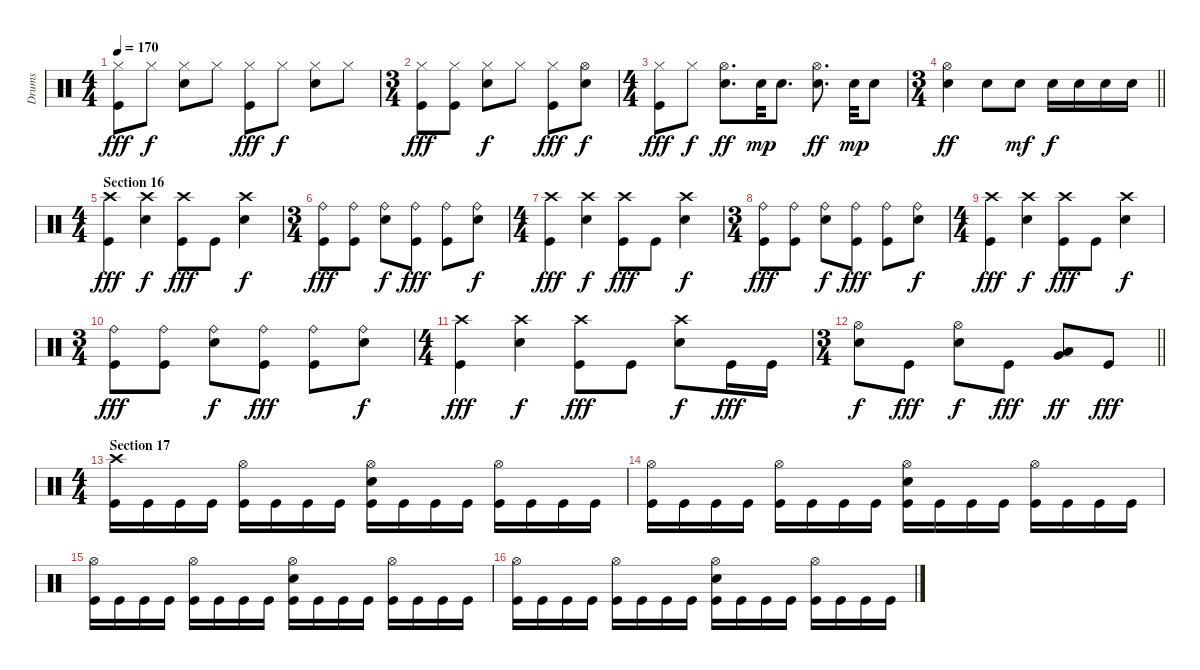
\track ("Drums" "Drums") {instrument percussion}
\staff {score}
\articulation defaults
\ts (4 4)
\tempo 170
\clef neutral
\ks c
("Hi-Hat (closed)" "Kick (hit)").8{dy fff} "Hi-Hat (closed)".8{dy f} ("Hi-Hat (closed)" "Snare (hit) 2").8 "Hi-Hat (closed)".8 ("Hi-Hat (closed)" "Kick (hit)").8{dy fff} "Hi-Hat (closed)".8{dy f} ("Hi-Hat (closed)" "Snare (hit) 2").8 "Hi-Hat (closed)".8 |
\ts (3 4)
("Hi-Hat (closed)" "Kick (hit)").8{dy fff} ("Hi-Hat (closed)" "Kick (hit)").8 ("Hi-Hat (closed)" "Snare (hit) 2").8{dy f} "Hi-Hat (closed)".8 ("Hi-Hat (closed)" "Kick (hit)").8{dy fff} ("Hi-Hat (open)" "Snare (hit) 2").8{dy f} |
\ts (4 4)
("Hi-Hat (closed)" "Kick (hit)").8{dy fff} "Hi-Hat (closed)".8{dy f} ("Hi-Hat (open)" "Snare (hit) 2").8{d dy ff} "Snare (hit) 2".32{dy mp} "Snare (hit) 2".8{d} ("Hi-Hat (open)" "Snare (hit) 2").8{d dy ff} "Snare (hit) 2".32{dy mp} "Snare (hit) 2".8 |
\ts (3 4)
\barLineRight lightlight
("Hi-Hat (open)" "Snare (hit) 2").4{dy ff} "Snare (hit) 2".8 "Snare (hit) 2".8{dy mf} "Snare (hit) 2".16{dy f} "Snare (hit) 2".16 "Snare (hit) 2".16 "Snare (hit) 2".16 |
\ts (4 4)
\section ("" "Section 16")
("Crash high (hit)" "Kick (hit)").4{dy fff} ("Crash high (hit)" "Snare (hit) 2").4{dy f} ("Crash high (hit)" "Kick (hit)").8{dy fff} "Kick (hit)".8 ("Crash high (hit)" "Snare (hit) 2").4{dy f} |
\ts (3 4)
("Ride (bell)" "Kick (hit)").8{dy fff} ("Ride (bell)" "Kick (hit)").8 ("Ride (bell)" "Snare (hit) 2").8{dy f} ("Ride (bell)" "Kick (hit)").8{dy fff} ("Ride (bell)" "Kick (hit)").8 ("Ride (bell)" "Snare (hit) 2").8{dy f} |
\ts (4 4)
("Crash high (hit)" "Kick (hit)").4{dy fff} ("Crash high (hit)" "Snare (hit) 2").4{dy f} ("Crash high (hit)" "Kick (hit)").8{dy fff} "Kick (hit)".8 ("Crash high (hit)" "Snare (hit) 2").4{dy f} |
\ts (3 4)
("Ride (bell)" "Kick (hit)").8{dy fff} ("Ride (bell)" "Kick (hit)").8 ("Ride (bell)" "Snare (hit) 2").8{dy f} ("Ride (bell)" "Kick (hit)").8{dy fff} ("Ride (bell)" "Kick (hit)").8 ("Ride (bell)" "Snare (hit) 2").8{dy f} |
\ts (4 4)
("Crash high (hit)" "Kick (hit)").4{dy fff} ("Crash high (hit)" "Snare (hit) 2").4{dy f} ("Crash high (hit)" "Kick (hit)").8{dy fff} "Kick (hit)".8 ("Crash high (hit)" "Snare (hit) 2").4{dy f} |
\ts (3 4)
("Ride (bell)" "Kick (hit)").8{dy fff} ("Ride (bell)" "Kick (hit)").8 ("Ride (bell)" "Snare (hit) 2").8{dy f} ("Ride (bell)" "Kick (hit)").8{dy fff} ("Ride (bell)" "Kick (hit)").8 ("Ride (bell)" "Snare (hit) 2").8{dy f} |
\ts (4 4)
("Crash high (hit)" "Kick (hit)").4{dy fff} ("Crash high (hit)" "Snare (hit) 2").4{dy f} ("Crash high (hit)" "Kick (hit)").8{dy fff} "Kick (hit)".8 ("Crash high (hit)" "Snare (hit) 2").8{dy f} "Kick (hit)".16{dy fff} "Kick (hit)".16 |
\ts (3 4)
\barLineRight lightlight
("Hi-Hat (open)" "Snare (hit) 2").8{dy f} "Kick (hit)".8{dy fff} ("Hi-Hat (open)" "Snare (hit) 2").8{dy f} "Kick (hit)".8{dy fff} ("Low Tom (hit)" "Very Low Tom (hit)").8{bd 120 dy ff} "Kick (hit)".8{dy fff} |
\ts (4 4)
\section ("" "Section 17")
("Crash high (hit)" "Kick (hit)").16 "Kick (hit)".16 "Kick (hit)".16 "Kick (hit)".16 ("Hi-Hat (open)" "Kick (hit)").16 "Kick (hit)".16 "Kick (hit)".16 "Kick (hit)".16 ("Hi-Hat (open)" "Snare (hit) 2" "Kick (hit)").16 "Kick (hit)".16 "Kick (hit)".16 "Kick (hit)".16 ("Hi-Hat (open)" "Kick (hit)").16 "Kick (hit)".16 "Kick (hit)".16 "Kick (hit)".16 |
("Hi-Hat (open)" "Kick (hit)").16 "Kick (hit)".16 "Kick (hit)".16 "Kick (hit)".16 ("Hi-Hat (open)" "Kick (hit)").16 "Kick (hit)".16 "Kick (hit)".16 "Kick (hit)".16 ("Hi-Hat (open)" "Snare (hit) 2" "Kick (hit)").16 "Kick (hit)".16 "Kick (hit)".16 "Kick (hit)".16 ("Hi-Hat (open)" "Kick (hit)").16 "Kick (hit)".16 "Kick (hit)".16 "Kick (hit)".16 |
("Hi-Hat (open)" "Kick (hit)").16 "Kick (hit)".16 "Kick (hit)".16 "Kick (hit)".16 ("Hi-Hat (open)" "Kick (hit)").16 "Kick (hit)".16 "Kick (hit)".16 "Kick (hit)".16 ("Hi-Hat (open)" "Snare (hit) 2" "Kick (hit)").16 "Kick (hit)".16 "Kick (hit)".16 "Kick (hit)".16 ("Hi-Hat (open)" "Kick (hit)").16 "Kick (hit)".16 "Kick (hit)".16 "Kick (hit)".16 |
("Hi-Hat (open)" "Kick (hit)").16 "Kick (hit)".16 "Kick (hit)".16 "Kick (hit)".16 ("Hi-Hat (open)" "Kick (hit)").16 "Kick (hit)".16 "Kick (hit)".16 "Kick (hit)".16 ("Hi-Hat (open)" "Snare (hit) 2" "Kick (hit)").16 "Kick (hit)".16 "Kick (hit)".16 "Kick (hit)".16 ("Hi-Hat (open)" "Kick (hit)").16 "Kick (hit)".16 "Kick (hit)".16 "Kick (hit)".16
